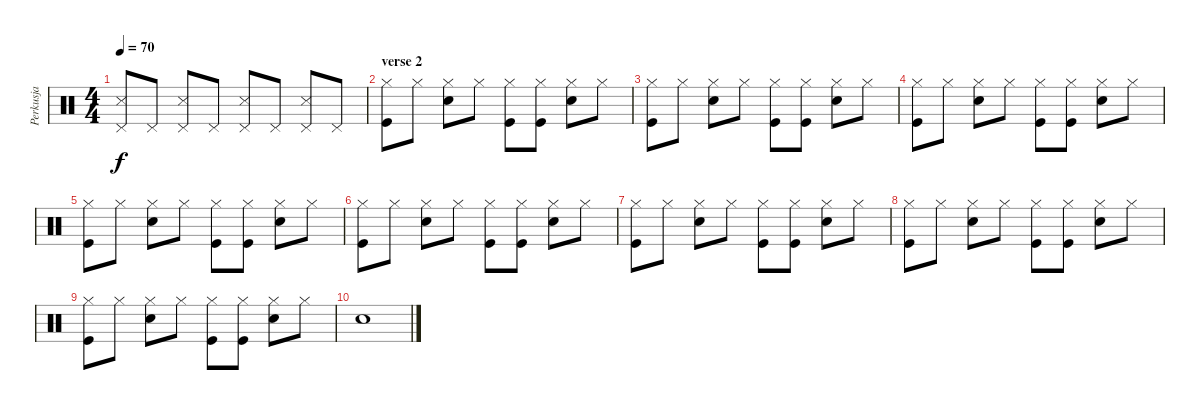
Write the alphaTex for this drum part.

\track ("Perkusja" "Perkusja") {instrument percussion}
\staff {score}
\articulation defaults
\ts (4 4)
\tempo 70
\clef neutral
\ks c
("Pedal Hi-Hat (hit)" "Snare (side stick) 3").8{dy f} "Pedal Hi-Hat (hit)".8 ("Pedal Hi-Hat (hit)" "Snare (side stick) 3").8 "Pedal Hi-Hat (hit)".8 ("Pedal Hi-Hat (hit)" "Snare (side stick) 3").8 "Pedal Hi-Hat (hit)".8 ("Pedal Hi-Hat (hit)" "Snare (side stick) 3").8 "Pedal Hi-Hat (hit)".8 |
\section ("" "verse 2")
("Hi-Hat (closed)" "Kick (hit)").8 "Hi-Hat (closed)".8 ("Hi-Hat (closed)" "Electric Snare (hit)").8 "Hi-Hat (closed)".8 ("Hi-Hat (closed)" "Kick (hit)").8 ("Hi-Hat (closed)" "Kick (hit)").8 ("Hi-Hat (closed)" "Electric Snare (hit)").8 "Hi-Hat (closed)".8 |
("Hi-Hat (closed)" "Kick (hit)").8 "Hi-Hat (closed)".8 ("Hi-Hat (closed)" "Electric Snare (hit)").8 "Hi-Hat (closed)".8 ("Hi-Hat (closed)" "Kick (hit)").8 ("Hi-Hat (closed)" "Kick (hit)").8 ("Hi-Hat (closed)" "Electric Snare (hit)").8 "Hi-Hat (closed)".8 |
("Hi-Hat (closed)" "Kick (hit)").8 "Hi-Hat (closed)".8 ("Hi-Hat (closed)" "Electric Snare (hit)").8 "Hi-Hat (closed)".8 ("Hi-Hat (closed)" "Kick (hit)").8 ("Hi-Hat (closed)" "Kick (hit)").8 ("Hi-Hat (closed)" "Electric Snare (hit)").8 "Hi-Hat (closed)".8 |
("Hi-Hat (closed)" "Kick (hit)").8 "Hi-Hat (closed)".8 ("Hi-Hat (closed)" "Electric Snare (hit)").8 "Hi-Hat (closed)".8 ("Hi-Hat (closed)" "Kick (hit)").8 ("Hi-Hat (closed)" "Kick (hit)").8 ("Hi-Hat (closed)" "Electric Snare (hit)").8 "Hi-Hat (closed)".8 |
("Hi-Hat (closed)" "Kick (hit)").8 "Hi-Hat (closed)".8 ("Hi-Hat (closed)" "Electric Snare (hit)").8 "Hi-Hat (closed)".8 ("Hi-Hat (closed)" "Kick (hit)").8 ("Hi-Hat (closed)" "Kick (hit)").8 ("Hi-Hat (closed)" "Electric Snare (hit)").8 "Hi-Hat (closed)".8 |
("Hi-Hat (closed)" "Kick (hit)").8 "Hi-Hat (closed)".8 ("Hi-Hat (closed)" "Electric Snare (hit)").8 "Hi-Hat (closed)".8 ("Hi-Hat (closed)" "Kick (hit)").8 ("Hi-Hat (closed)" "Kick (hit)").8 ("Hi-Hat (closed)" "Electric Snare (hit)").8 "Hi-Hat (closed)".8 |
("Hi-Hat (closed)" "Kick (hit)").8 "Hi-Hat (closed)".8 ("Hi-Hat (closed)" "Electric Snare (hit)").8 "Hi-Hat (closed)".8 ("Hi-Hat (closed)" "Kick (hit)").8 ("Hi-Hat (closed)" "Kick (hit)").8 ("Hi-Hat (closed)" "Electric Snare (hit)").8 "Hi-Hat (closed)".8 |
("Hi-Hat (closed)" "Kick (hit)").8 "Hi-Hat (closed)".8 ("Hi-Hat (closed)" "Electric Snare (hit)").8 "Hi-Hat (closed)".8 ("Hi-Hat (closed)" "Kick (hit)").8 ("Hi-Hat (closed)" "Kick (hit)").8 ("Hi-Hat (closed)" "Electric Snare (hit)").8 "Hi-Hat (closed)".8 |
"Electric Snare (hit)".1
